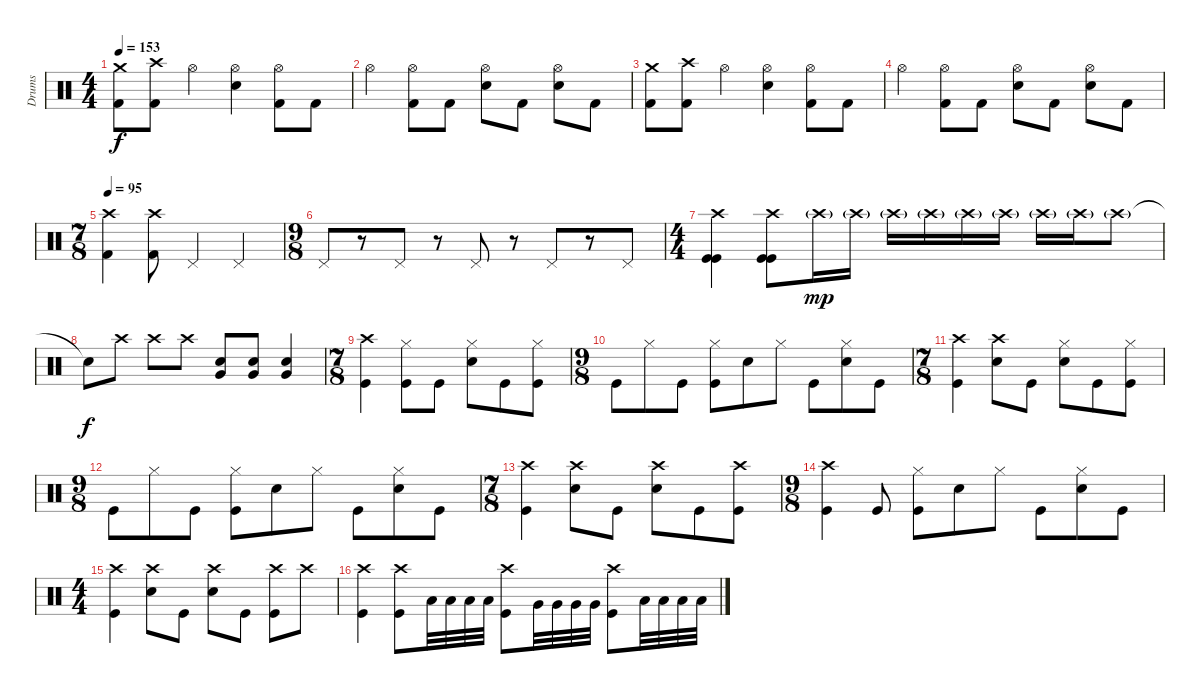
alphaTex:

\track ("Drums" "Drums") {instrument percussion}
\staff {score}
\articulation defaults
\ts (4 4)
\tempo 153
\clef neutral
\ks c
("Crash medium (hit)" "Kick (hit) 2").8{dy f} ("Crash high (hit)" "Kick (hit) 2").8 "Hi-Hat (open)".4 ("Hi-Hat (open)" "Snare (hit) 2").4 ("Hi-Hat (open)" "Kick (hit) 2").8 "Kick (hit) 2".8 |
"Hi-Hat (open)".4 ("Hi-Hat (open)" "Kick (hit) 2").8 "Kick (hit) 2".8 ("Hi-Hat (open)" "Snare (hit) 2").8 "Kick (hit) 2".8 ("Hi-Hat (open)" "Snare (hit) 2").8 "Kick (hit) 2".8 |
("Crash medium (hit)" "Kick (hit) 2").8 ("Crash high (hit)" "Kick (hit) 2").8 "Hi-Hat (open)".4 ("Hi-Hat (open)" "Snare (hit) 2").4 ("Hi-Hat (open)" "Kick (hit) 2").8 "Kick (hit) 2".8 |
"Hi-Hat (open)".4 ("Hi-Hat (open)" "Kick (hit) 2").8 "Kick (hit) 2".8 ("Hi-Hat (open)" "Snare (hit) 2").8 "Kick (hit) 2".8 ("Hi-Hat (open)" "Snare (hit) 2").8 "Kick (hit) 2".8 |
\ts (7 8)
\tempo 95
("Crash high (hit)" "Kick (hit) 2").4 ("Crash high (hit)" "Kick (hit) 2").8 "Pedal Hi-Hat (hit)".4 "Pedal Hi-Hat (hit)".4 |
\ts (9 8)
"Pedal Hi-Hat (hit)".8 r.8 "Pedal Hi-Hat (hit)".8 r.8 "Pedal Hi-Hat (hit)".8 r.8 "Pedal Hi-Hat (hit)".8 r.8 "Pedal Hi-Hat (hit)".8 |
\ts (4 4)
("Crash high (hit)" "Kick (hit)" "Kick (hit)").4 ("Crash high (hit)" "Kick (hit)" "Kick (hit)").8 "Crash high (hit)"{g}.16{dy mp} "Crash high (hit)"{g}.16 "Crash high (hit)"{g}.16 "Crash high (hit)"{g}.16 "Crash high (hit)"{g}.16 "Crash high (hit)"{g}.16 "Crash high (hit)"{g}.16 "Crash high (hit)"{g}.16 "Crash high (hit)"{g}.8 |
"Snare (hit)"{t}.8{dy f} "Crash high (hit)".8 "Crash high (hit)".8 "Crash high (hit)".8 ("Electric Snare (hit)" "Very Low Tom (hit)").8 ("Electric Snare (hit)" "Very Low Tom (hit)").8 ("Electric Snare (hit)" "Very Low Tom (hit)").4 |
\ts (7 8)
("Crash high (hit)" "Kick (hit)").4 ("Hi-Hat (closed)" "Kick (hit)").8 "Kick (hit)".8 ("Hi-Hat (closed)" "Electric Snare (hit)").8 "Kick (hit)".8 ("Hi-Hat (closed)" "Kick (hit)").8 |
\ts (9 8)
"Kick (hit)".8 "Hi-Hat (closed)".8 "Kick (hit)".8 ("Hi-Hat (closed)" "Kick (hit)").8 "Electric Snare (hit)".8 "Hi-Hat (closed)".8 "Kick (hit)".8 ("Hi-Hat (closed)" "Electric Snare (hit)").8 "Kick (hit)".8 |
\ts (7 8)
("Crash high (hit)" "Kick (hit)").4 ("Crash high (hit)" "Electric Snare (hit)").8 "Kick (hit)".8 ("Hi-Hat (closed)" "Electric Snare (hit)").8 "Kick (hit)".8 ("Hi-Hat (closed)" "Kick (hit)").8 |
\ts (9 8)
"Kick (hit)".8 "Hi-Hat (closed)".8 "Kick (hit)".8 ("Hi-Hat (closed)" "Kick (hit)").8 "Electric Snare (hit)".8 "Hi-Hat (closed)".8 "Kick (hit)".8 ("Hi-Hat (closed)" "Electric Snare (hit)").8 "Kick (hit)".8 |
\ts (7 8)
("Crash high (hit)" "Kick (hit)").4 ("Crash high (hit)" "Electric Snare (hit)").8 "Kick (hit)".8 ("Crash high (hit)" "Electric Snare (hit)").8 "Kick (hit)".8 ("Crash high (hit)" "Kick (hit)").8 |
\ts (9 8)
("Crash high (hit)" "Kick (hit)").4 "Kick (hit)".8 ("Hi-Hat (closed)" "Kick (hit)").8 "Electric Snare (hit)".8 "Hi-Hat (closed)".8 "Kick (hit)".8 ("Hi-Hat (closed)" "Electric Snare (hit)").8 "Kick (hit)".8 |
\ts (4 4)
("Crash high (hit)" "Kick (hit)").4 ("Crash high (hit)" "Electric Snare (hit)").8 "Kick (hit)".8 ("Crash high (hit)" "Electric Snare (hit)").8 "Kick (hit)".8 ("Crash high (hit)" "Kick (hit)").8 "Crash high (hit)".8 |
("Crash high (hit)" "Kick (hit)").4 ("Crash high (hit)" "Kick (hit)").8 "Low Tom (hit)".32 "Low Tom (hit)".32 "Low Tom (hit)".32 "Low Tom (hit)".32 ("Crash high (hit)" "Kick (hit)").8 "Very Low Tom (hit)".32 "Very Low Tom (hit)".32 "Very Low Tom (hit)".32 "Very Low Tom (hit)".32 ("Crash high (hit)" "Kick (hit)").8 "Low Floor Tom (hit)".32 "Low Floor Tom (hit)".32 "Low Floor Tom (hit)".32 "Low Floor Tom (hit)".32
